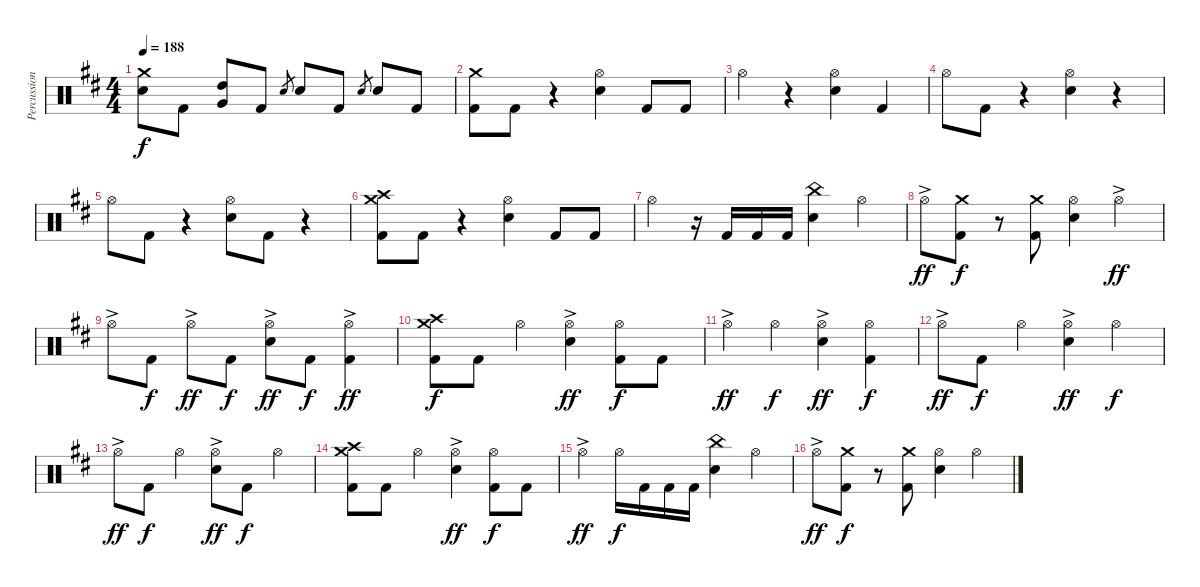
\track ("Percussion" "Percussion") {instrument percussion}
\staff {score}
\articulation defaults
\ts (4 4)
\tempo 188
\clef neutral
\ks bminor
("Electric Snare (hit)" "Crash medium (hit)").8{dy f} "Kick (hit) 2".8 ("High Tom (hit)" "Very Low Tom (hit)").8 "Kick (hit) 2".8 "Electric Snare (hit)".8{gr} "Electric Snare (hit)".8 "Kick (hit) 2".8 "Electric Snare (hit)".8{gr} "Electric Snare (hit)".8 "Kick (hit) 2".8 |
("Crash medium (hit)" "Kick (hit) 2").8 "Kick (hit) 2".8 r.4 ("Electric Snare (hit)" "Hi-Hat (open)").4 "Kick (hit) 2".8 "Kick (hit) 2".8 |
"Hi-Hat (open)".4 r.4 ("Electric Snare (hit)" "Hi-Hat (open)").4 "Kick (hit) 2".4 |
"Hi-Hat (open)".8 "Kick (hit) 2".8 r.4 ("Electric Snare (hit)" "Hi-Hat (open)").4 r.4 |
"Hi-Hat (open)".8 "Kick (hit) 2".8 r.4 ("Electric Snare (hit)" "Hi-Hat (open)").8 "Kick (hit) 2".8 r.4 |
("Crash medium (hit)" "Kick (hit) 2" "Crash high (hit)").8 "Kick (hit) 2".8 r.4 ("Electric Snare (hit)" "Hi-Hat (open)").4 "Kick (hit) 2".8 "Kick (hit) 2".8 |
"Hi-Hat (open)".4 r.16 "Kick (hit) 2".16 "Kick (hit) 2".16 "Kick (hit) 2".16 ("Electric Snare (hit)" "China (hit)").4 "Hi-Hat (open)".4 |
"Hi-Hat (open)"{ac}.8{dy ff} ("Kick (hit) 2" "Crash medium (hit)").8{dy f} r.8 ("Kick (hit) 2" "Crash medium (hit)").8 ("Electric Snare (hit)" "Hi-Hat (open)").4 "Hi-Hat (open)"{ac}.4{dy ff} |
"Hi-Hat (open)"{ac}.8 "Kick (hit) 2".8{dy f} "Hi-Hat (open)"{ac}.8{dy ff} "Kick (hit) 2".8{dy f} ("Electric Snare (hit)" "Hi-Hat (open)"{ac}).8{dy ff} "Kick (hit) 2".8{dy f} ("Hi-Hat (open)"{ac} "Kick (hit) 2").4{dy ff} |
("Crash medium (hit)" "Kick (hit) 2" "Crash high (hit)").8{dy f} "Kick (hit) 2".8 "Hi-Hat (open)".4 ("Electric Snare (hit)" "Hi-Hat (open)"{ac}).4{dy ff} ("Kick (hit) 2" "Hi-Hat (open)").8{dy f} "Kick (hit) 2".8 |
"Hi-Hat (open)"{ac}.4{dy ff} "Hi-Hat (open)".4{dy f} ("Electric Snare (hit)" "Hi-Hat (open)"{ac}).4{dy ff} ("Kick (hit) 2" "Hi-Hat (open)").4{dy f} |
"Hi-Hat (open)"{ac}.8{dy ff} "Kick (hit) 2".8{dy f} "Hi-Hat (open)".4 ("Electric Snare (hit)" "Hi-Hat (open)"{ac}).4{dy ff} "Hi-Hat (open)".4{dy f} |
"Hi-Hat (open)"{ac}.8{dy ff} "Kick (hit) 2".8{dy f} "Hi-Hat (open)".4 ("Electric Snare (hit)" "Hi-Hat (open)"{ac}).8{dy ff} "Kick (hit) 2".8{dy f} "Hi-Hat (open)".4 |
("Crash high (hit)" "Kick (hit) 2" "Crash medium (hit)").8 "Kick (hit) 2".8 "Hi-Hat (open)".4 ("Electric Snare (hit)" "Hi-Hat (open)"{ac}).4{dy ff} ("Kick (hit) 2" "Hi-Hat (open)").8{dy f} "Kick (hit) 2".8 |
"Hi-Hat (open)"{ac}.4{dy ff} "Hi-Hat (open)".16{dy f} "Kick (hit) 2".16 "Kick (hit) 2".16 "Kick (hit) 2".16 ("Electric Snare (hit)" "China (hit)").4 "Hi-Hat (open)".4 |
"Hi-Hat (open)"{ac}.8{dy ff} ("Kick (hit) 2" "Crash medium (hit)").8{dy f} r.8 ("Kick (hit) 2" "Crash medium (hit)").8 ("Electric Snare (hit)" "Hi-Hat (open)").4 "Hi-Hat (open)".4
